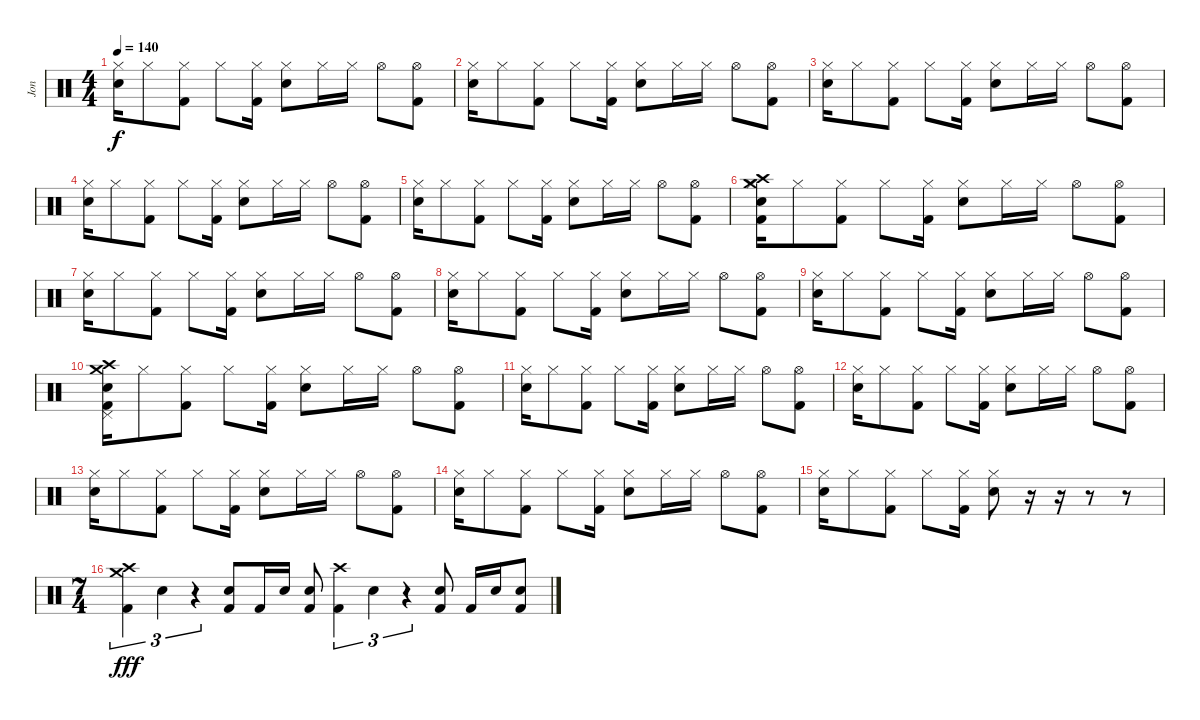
\track ("Jon" "Jon") {instrument percussion}
\staff {score}
\articulation defaults
\ts (4 4)
\tempo 140
\clef neutral
\ks c
("Hi-Hat (closed)" "Electric Snare (hit)").16{dy f} "Hi-Hat (closed)".8 ("Hi-Hat (closed)" "Kick (hit) 2").8 "Hi-Hat (closed)".8 ("Hi-Hat (closed)" "Kick (hit) 2").16 ("Hi-Hat (closed)" "Snare (hit) 2").8 "Hi-Hat (closed)".16 "Hi-Hat (closed)".16 "Hi-Hat (open)".8 ("Hi-Hat (open)" "Kick (hit) 2").8 |
("Hi-Hat (closed)" "Electric Snare (hit)").16 "Hi-Hat (closed)".8 ("Hi-Hat (closed)" "Kick (hit) 2").8 "Hi-Hat (closed)".8 ("Hi-Hat (closed)" "Kick (hit) 2").16 ("Hi-Hat (closed)" "Snare (hit) 2").8 "Hi-Hat (closed)".16 "Hi-Hat (closed)".16 "Hi-Hat (open)".8 ("Hi-Hat (open)" "Kick (hit) 2").8 |
("Hi-Hat (closed)" "Electric Snare (hit)").16 "Hi-Hat (closed)".8 ("Hi-Hat (closed)" "Kick (hit) 2").8 "Hi-Hat (closed)".8 ("Hi-Hat (closed)" "Kick (hit) 2").16 ("Hi-Hat (closed)" "Snare (hit) 2").8 "Hi-Hat (closed)".16 "Hi-Hat (closed)".16 "Hi-Hat (open)".8 ("Hi-Hat (open)" "Kick (hit) 2").8 |
("Hi-Hat (closed)" "Electric Snare (hit)").16 "Hi-Hat (closed)".8 ("Hi-Hat (closed)" "Kick (hit) 2").8 "Hi-Hat (closed)".8 ("Hi-Hat (closed)" "Kick (hit) 2").16 ("Hi-Hat (closed)" "Snare (hit) 2").8 "Hi-Hat (closed)".16 "Hi-Hat (closed)".16 "Hi-Hat (open)".8 ("Hi-Hat (open)" "Kick (hit) 2").8 |
("Hi-Hat (closed)" "Electric Snare (hit)").16 "Hi-Hat (closed)".8 ("Hi-Hat (closed)" "Kick (hit) 2").8 "Hi-Hat (closed)".8 ("Hi-Hat (closed)" "Kick (hit) 2").16 ("Hi-Hat (closed)" "Snare (hit) 2").8 "Hi-Hat (closed)".16 "Hi-Hat (closed)".16 "Hi-Hat (open)".8 ("Hi-Hat (open)" "Kick (hit) 2").8 |
("Crash high (hit)" "Crash medium (hit)" "Hi-Hat (closed)" "Electric Snare (hit)" "Kick (hit) 2").16 "Hi-Hat (closed)".8 ("Hi-Hat (closed)" "Kick (hit) 2").8 "Hi-Hat (closed)".8 ("Hi-Hat (closed)" "Kick (hit) 2").16 ("Hi-Hat (closed)" "Snare (hit) 2").8 "Hi-Hat (closed)".16 "Hi-Hat (closed)".16 "Hi-Hat (open)".8 ("Hi-Hat (open)" "Kick (hit) 2").8 |
("Hi-Hat (closed)" "Electric Snare (hit)").16 "Hi-Hat (closed)".8 ("Hi-Hat (closed)" "Kick (hit) 2").8 "Hi-Hat (closed)".8 ("Hi-Hat (closed)" "Kick (hit) 2").16 ("Hi-Hat (closed)" "Snare (hit) 2").8 "Hi-Hat (closed)".16 "Hi-Hat (closed)".16 "Hi-Hat (open)".8 ("Hi-Hat (open)" "Kick (hit) 2").8 |
("Hi-Hat (closed)" "Electric Snare (hit)").16 "Hi-Hat (closed)".8 ("Hi-Hat (closed)" "Kick (hit) 2").8 "Hi-Hat (closed)".8 ("Hi-Hat (closed)" "Kick (hit) 2").16 ("Hi-Hat (closed)" "Snare (hit) 2").8 "Hi-Hat (closed)".16 "Hi-Hat (closed)".16 "Hi-Hat (open)".8 ("Hi-Hat (open)" "Kick (hit) 2").8 |
("Hi-Hat (closed)" "Electric Snare (hit)").16 "Hi-Hat (closed)".8 ("Hi-Hat (closed)" "Kick (hit) 2").8 "Hi-Hat (closed)".8 ("Hi-Hat (closed)" "Kick (hit) 2").16 ("Hi-Hat (closed)" "Snare (hit) 2").8 "Hi-Hat (closed)".16 "Hi-Hat (closed)".16 "Hi-Hat (open)".8 ("Hi-Hat (open)" "Kick (hit) 2").8 |
("Crash high (hit)" "Crash medium (hit)" "Pedal Hi-Hat (hit)" "Electric Snare (hit)" "Kick (hit) 2").16 "Hi-Hat (closed)".8 ("Hi-Hat (closed)" "Kick (hit) 2").8 "Hi-Hat (closed)".8 ("Hi-Hat (closed)" "Kick (hit) 2").16 ("Hi-Hat (closed)" "Snare (hit) 2").8 "Hi-Hat (closed)".16 "Hi-Hat (closed)".16 "Hi-Hat (open)".8 ("Hi-Hat (open)" "Kick (hit) 2").8 |
("Hi-Hat (closed)" "Electric Snare (hit)").16 "Hi-Hat (closed)".8 ("Hi-Hat (closed)" "Kick (hit) 2").8 "Hi-Hat (closed)".8 ("Hi-Hat (closed)" "Kick (hit) 2").16 ("Hi-Hat (closed)" "Snare (hit) 2").8 "Hi-Hat (closed)".16 "Hi-Hat (closed)".16 "Hi-Hat (open)".8 ("Hi-Hat (open)" "Kick (hit) 2").8 |
("Hi-Hat (closed)" "Electric Snare (hit)").16 "Hi-Hat (closed)".8 ("Hi-Hat (closed)" "Kick (hit) 2").8 "Hi-Hat (closed)".8 ("Hi-Hat (closed)" "Kick (hit) 2").16 ("Hi-Hat (closed)" "Snare (hit) 2").8 "Hi-Hat (closed)".16 "Hi-Hat (closed)".16 "Hi-Hat (open)".8 ("Hi-Hat (open)" "Kick (hit) 2").8 |
("Hi-Hat (closed)" "Electric Snare (hit)").16 "Hi-Hat (closed)".8 ("Hi-Hat (closed)" "Kick (hit) 2").8 "Hi-Hat (closed)".8 ("Hi-Hat (closed)" "Kick (hit) 2").16 ("Hi-Hat (closed)" "Snare (hit) 2").8 "Hi-Hat (closed)".16 "Hi-Hat (closed)".16 "Hi-Hat (open)".8 ("Hi-Hat (open)" "Kick (hit) 2").8 |
("Hi-Hat (closed)" "Electric Snare (hit)").16 "Hi-Hat (closed)".8 ("Hi-Hat (closed)" "Kick (hit) 2").8 "Hi-Hat (closed)".8 ("Hi-Hat (closed)" "Kick (hit) 2").16 ("Hi-Hat (closed)" "Snare (hit) 2").8 "Hi-Hat (closed)".16 "Hi-Hat (closed)".16 "Hi-Hat (open)".8 ("Hi-Hat (open)" "Kick (hit) 2").8 |
("Hi-Hat (closed)" "Electric Snare (hit)").16 "Hi-Hat (closed)".8 ("Hi-Hat (closed)" "Kick (hit) 2").8 "Hi-Hat (closed)".8 ("Hi-Hat (closed)" "Kick (hit) 2").16 ("Hi-Hat (closed)" "Snare (hit) 2").8 r.16 r.16 r.8 r.8 |
\ts (7 4)
("Crash medium (hit)" "Crash high (hit)" "Kick (hit) 2").4{tu (3 2) dy fff} "Snare (hit) 2".4{tu (3 2)} r.4{tu (3 2)} ("Snare (hit) 2" "Kick (hit) 2").8 "Kick (hit) 2".16 "Electric Snare (hit)".16 ("Snare (hit) 2" "Kick (hit) 2").8 ("Crash high (hit)" "Kick (hit) 2").4{tu (3 2)} "Snare (hit) 2".4{tu (3 2)} r.4{tu (3 2)} ("Snare (hit) 2" "Kick (hit) 2").8 "Kick (hit) 2".16 "Electric Snare (hit)".16 ("Snare (hit) 2" "Kick (hit) 2").8
